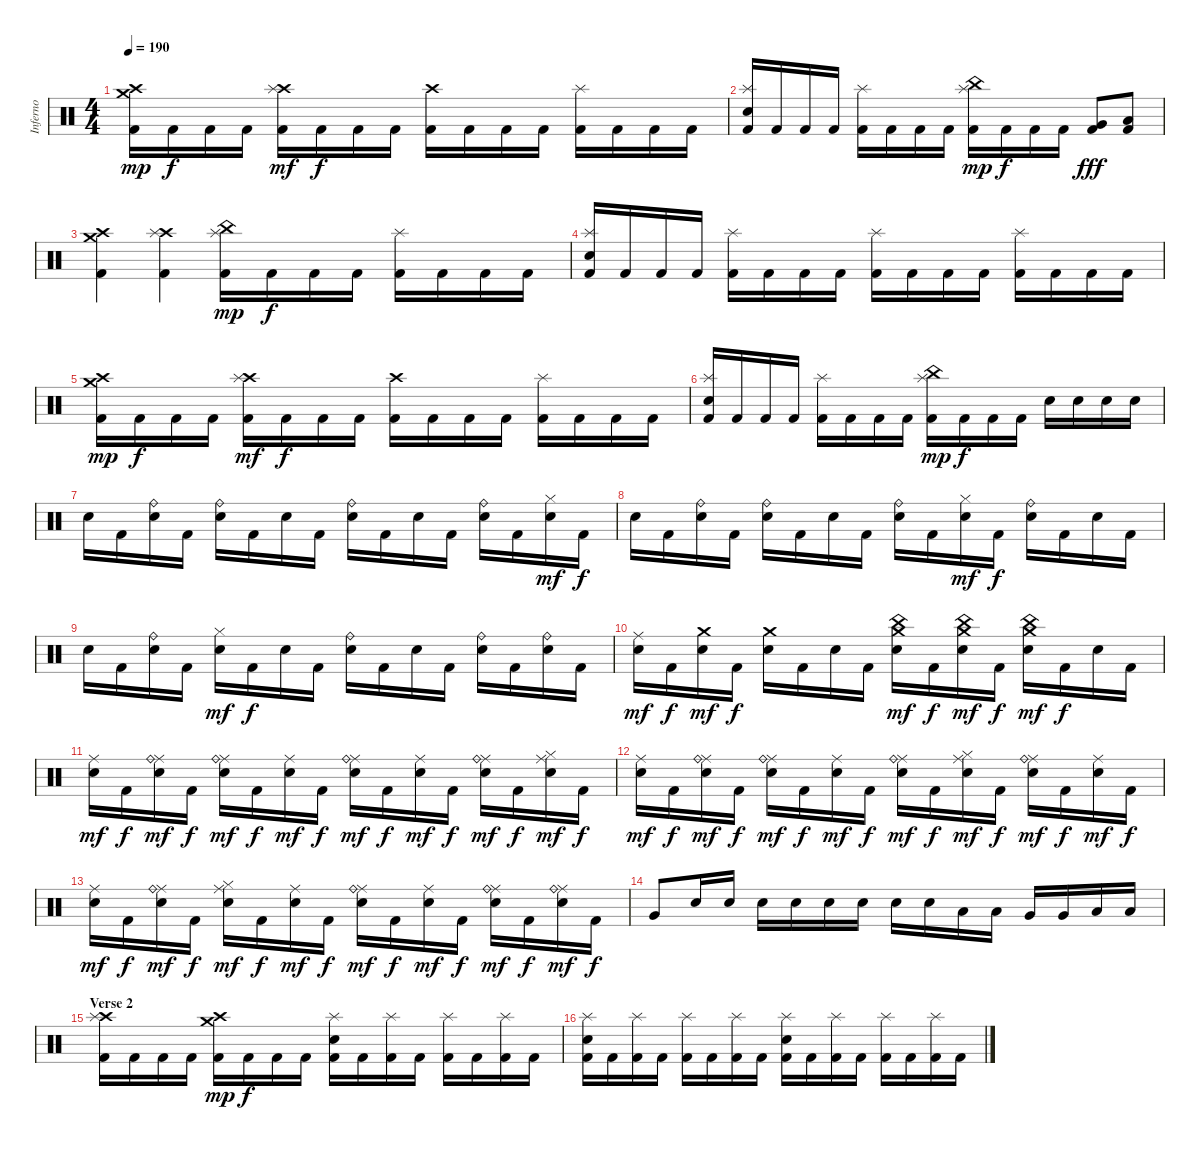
\track ("Inferno" "Inferno") {instrument percussion}
\staff {score}
\articulation defaults
\ts (4 4)
\tempo 190
\clef neutral
\ks c
("Crash high (hit)" "Crash medium (hit)" "Kick (hit) 2").16{dy mp} "Kick (hit) 2".16{dy f} "Kick (hit) 2".16 "Kick (hit) 2".16 ("Crash high (hit)" "Splash (hit)" "Kick (hit) 2").16{dy mf} "Kick (hit) 2".16{dy f} "Kick (hit) 2".16 "Kick (hit) 2".16 ("Crash high (hit)" "Kick (hit) 2").16 "Kick (hit) 2".16 "Kick (hit) 2".16 "Kick (hit) 2".16 ("Splash (hit)" "Kick (hit) 2").16 "Kick (hit) 2".16 "Kick (hit) 2".16 "Kick (hit) 2".16 |
("Splash (hit)" "Snare (hit) 2" "Kick (hit) 2").16 "Kick (hit) 2".16 "Kick (hit) 2".16 "Kick (hit) 2".16 ("Splash (hit)" "Kick (hit) 2").16 "Kick (hit) 2".16 "Kick (hit) 2".16 "Kick (hit) 2".16 ("Splash (hit)" "China (hit)" "Kick (hit) 2").16{dy mp} "Kick (hit) 2".16{dy f} "Kick (hit) 2".16 "Kick (hit) 2".16 ("Very Low Tom (hit)" "Kick (hit) 2").8{dy fff} ("Low Floor Tom (hit)" "Kick (hit) 2").8 |
("Crash high (hit)" "Crash medium (hit)" "Kick (hit) 2").4 ("Crash high (hit)" "Splash (hit)" "Kick (hit) 2").4 ("Splash (hit)" "China (hit)" "Kick (hit) 2").16{dy mp} "Kick (hit) 2".16{dy f} "Kick (hit) 2".16 "Kick (hit) 2".16 ("Splash (hit)" "Kick (hit) 2").16 "Kick (hit) 2".16 "Kick (hit) 2".16 "Kick (hit) 2".16 |
("Splash (hit)" "Snare (hit) 2" "Kick (hit) 2").16 "Kick (hit) 2".16 "Kick (hit) 2".16 "Kick (hit) 2".16 ("Splash (hit)" "Kick (hit) 2").16 "Kick (hit) 2".16 "Kick (hit) 2".16 "Kick (hit) 2".16 ("Splash (hit)" "Kick (hit) 2").16 "Kick (hit) 2".16 "Kick (hit) 2".16 "Kick (hit) 2".16 ("Splash (hit)" "Kick (hit) 2").16 "Kick (hit) 2".16 "Kick (hit) 2".16 "Kick (hit) 2".16 |
("Crash high (hit)" "Crash medium (hit)" "Kick (hit) 2").16{dy mp} "Kick (hit) 2".16{dy f} "Kick (hit) 2".16 "Kick (hit) 2".16 ("Crash high (hit)" "Splash (hit)" "Kick (hit) 2").16{dy mf} "Kick (hit) 2".16{dy f} "Kick (hit) 2".16 "Kick (hit) 2".16 ("Crash high (hit)" "Kick (hit) 2").16 "Kick (hit) 2".16 "Kick (hit) 2".16 "Kick (hit) 2".16 ("Splash (hit)" "Kick (hit) 2").16 "Kick (hit) 2".16 "Kick (hit) 2".16 "Kick (hit) 2".16 |
("Splash (hit)" "Snare (hit) 2" "Kick (hit) 2").16 "Kick (hit) 2".16 "Kick (hit) 2".16 "Kick (hit) 2".16 ("Splash (hit)" "Kick (hit) 2").16 "Kick (hit) 2".16 "Kick (hit) 2".16 "Kick (hit) 2".16 ("Splash (hit)" "China (hit)" "Kick (hit) 2").16{dy mp} "Kick (hit) 2".16{dy f} "Kick (hit) 2".16 "Kick (hit) 2".16 "Snare (hit) 2".16 "Snare (hit) 2".16 "Snare (hit) 2".16 "Snare (hit) 2".16 |
"Snare (hit) 2".16 "Kick (hit) 2".16 ("Ride (bell)" "Snare (hit) 2").16 "Kick (hit) 2".16 ("Ride (bell)" "Snare (hit) 2").16 "Kick (hit) 2".16 "Snare (hit) 2".16 "Kick (hit) 2".16 ("Ride (bell)" "Snare (hit) 2").16 "Kick (hit) 2".16 "Snare (hit) 2".16 "Kick (hit) 2".16 ("Ride (bell)" "Snare (hit) 2").16 "Kick (hit) 2".16 ("Hi-Hat (closed)" "Snare (hit) 2").16{dy mf} "Kick (hit) 2".16{dy f} |
"Snare (hit) 2".16 "Kick (hit) 2".16 ("Ride (bell)" "Snare (hit) 2").16 "Kick (hit) 2".16 ("Ride (bell)" "Snare (hit) 2").16 "Kick (hit) 2".16 "Snare (hit) 2".16 "Kick (hit) 2".16 ("Ride (bell)" "Snare (hit) 2").16 "Kick (hit) 2".16 ("Hi-Hat (closed)" "Snare (hit) 2").16{dy mf} "Kick (hit) 2".16{dy f} ("Ride (bell)" "Snare (hit) 2").16 "Kick (hit) 2".16 "Snare (hit) 2".16 "Kick (hit) 2".16 |
"Snare (hit) 2".16 "Kick (hit) 2".16 ("Ride (bell)" "Snare (hit) 2").16 "Kick (hit) 2".16 ("Hi-Hat (closed)" "Snare (hit) 2").16{dy mf} "Kick (hit) 2".16{dy f} "Snare (hit) 2".16 "Kick (hit) 2".16 ("Ride (bell)" "Snare (hit) 2").16 "Kick (hit) 2".16 "Snare (hit) 2".16 "Kick (hit) 2".16 ("Ride (bell)" "Snare (hit) 2").16 "Kick (hit) 2".16 ("Ride (bell)" "Snare (hit) 2").16 "Kick (hit) 2".16 |
("Ride (middle)" "Snare (hit) 2").16{dy mf} "Kick (hit) 2".16{dy f} ("Crash medium (hit)" "Snare (hit) 2").16{dy mf} "Kick (hit) 2".16{dy f} ("Crash medium (hit)" "Snare (hit) 2").16 "Kick (hit) 2".16 "Snare (hit) 2".16 "Kick (hit) 2".16 ("China (hit)" "Crash medium (hit)" "Snare (hit) 2").16{dy mf} "Kick (hit) 2".16{dy f} ("China (hit)" "Crash medium (hit)" "Snare (hit) 2").16{dy mf} "Kick (hit) 2".16{dy f} ("China (hit)" "Crash medium (hit)" "Snare (hit) 2").16{dy mf} "Kick (hit) 2".16{dy f} "Snare (hit) 2".16 "Kick (hit) 2".16 |
("Ride (middle)" "Snare (hit) 2").16{dy mf} "Kick (hit) 2".16{dy f} ("Ride (middle)" "Ride (bell)" "Snare (hit) 2").16{dy mf} "Kick (hit) 2".16{dy f} ("Ride (middle)" "Ride (bell)" "Snare (hit) 2").16{dy mf} "Kick (hit) 2".16{dy f} ("Ride (middle)" "Snare (hit) 2").16{dy mf} "Kick (hit) 2".16{dy f} ("Ride (middle)" "Ride (bell)" "Snare (hit) 2").16{dy mf} "Kick (hit) 2".16{dy f} ("Ride (middle)" "Snare (hit) 2").16{dy mf} "Kick (hit) 2".16{dy f} ("Ride (middle)" "Ride (bell)" "Snare (hit) 2").16{dy mf} "Kick (hit) 2".16{dy f} ("Ride (middle)" "Hi-Hat (closed)" "Snare (hit) 2").16{dy mf} "Kick (hit) 2".16{dy f} |
("Ride (middle)" "Snare (hit) 2").16{dy mf} "Kick (hit) 2".16{dy f} ("Ride (middle)" "Ride (bell)" "Snare (hit) 2").16{dy mf} "Kick (hit) 2".16{dy f} ("Ride (middle)" "Ride (bell)" "Snare (hit) 2").16{dy mf} "Kick (hit) 2".16{dy f} ("Ride (middle)" "Snare (hit) 2").16{dy mf} "Kick (hit) 2".16{dy f} ("Ride (middle)" "Ride (bell)" "Snare (hit) 2").16{dy mf} "Kick (hit) 2".16{dy f} ("Ride (middle)" "Hi-Hat (closed)" "Snare (hit) 2").16{dy mf} "Kick (hit) 2".16{dy f} ("Ride (middle)" "Ride (bell)" "Snare (hit) 2").16{dy mf} "Kick (hit) 2".16{dy f} ("Ride (middle)" "Snare (hit) 2").16{dy mf} "Kick (hit) 2".16{dy f} |
("Ride (middle)" "Snare (hit) 2").16{dy mf} "Kick (hit) 2".16{dy f} ("Ride (middle)" "Ride (bell)" "Snare (hit) 2").16{dy mf} "Kick (hit) 2".16{dy f} ("Ride (middle)" "Hi-Hat (closed)" "Snare (hit) 2").16{dy mf} "Kick (hit) 2".16{dy f} ("Ride (middle)" "Snare (hit) 2").16{dy mf} "Kick (hit) 2".16{dy f} ("Ride (middle)" "Ride (bell)" "Snare (hit) 2").16{dy mf} "Kick (hit) 2".16{dy f} ("Ride (middle)" "Snare (hit) 2").16{dy mf} "Kick (hit) 2".16{dy f} ("Ride (middle)" "Ride (bell)" "Snare (hit) 2").16{dy mf} "Kick (hit) 2".16{dy f} ("Ride (middle)" "Ride (bell)" "Snare (hit) 2").16{dy mf} "Kick (hit) 2".16{dy f} |
"Very Low Tom (hit)".8 "Snare (hit) 2".16 "Snare (hit) 2".16 "Snare (hit) 2".16 "Snare (hit) 2".16 "Snare (hit) 2".16 "Snare (hit) 2".16 "Snare (hit) 2".16 "Snare (hit) 2".16 "Low Tom (hit)".16 "Low Tom (hit)".16 "Very Low Tom (hit)".16 "Very Low Tom (hit)".16 "Low Floor Tom (hit)".16 "Low Floor Tom (hit)".16 |
\section ("" "Verse 2")
("Crash high (hit)" "Splash (hit)" "Kick (hit) 2").16 "Kick (hit) 2".16 "Kick (hit) 2".16 "Kick (hit) 2".16 ("Crash high (hit)" "Crash medium (hit)" "Kick (hit) 2").16{dy mp} "Kick (hit) 2".16{dy f} "Kick (hit) 2".16 "Kick (hit) 2".16 ("Splash (hit)" "Snare (hit) 2" "Kick (hit) 2").16 "Kick (hit) 2".16 ("Splash (hit)" "Kick (hit) 2").16 "Kick (hit) 2".16 ("Splash (hit)" "Kick (hit) 2").16 "Kick (hit) 2".16 ("Splash (hit)" "Kick (hit) 2").16 "Kick (hit) 2".16 |
("Splash (hit)" "Snare (hit) 2" "Kick (hit) 2").16 "Kick (hit) 2".16 ("Splash (hit)" "Kick (hit) 2").16 "Kick (hit) 2".16 ("Splash (hit)" "Kick (hit) 2").16 "Kick (hit) 2".16 ("Splash (hit)" "Kick (hit) 2").16 "Kick (hit) 2".16 ("Splash (hit)" "Snare (hit) 2" "Kick (hit) 2").16 "Kick (hit) 2".16 ("Splash (hit)" "Kick (hit) 2").16 "Kick (hit) 2".16 ("Splash (hit)" "Kick (hit) 2").16 "Kick (hit) 2".16 ("Splash (hit)" "Kick (hit) 2").16 "Kick (hit) 2".16
